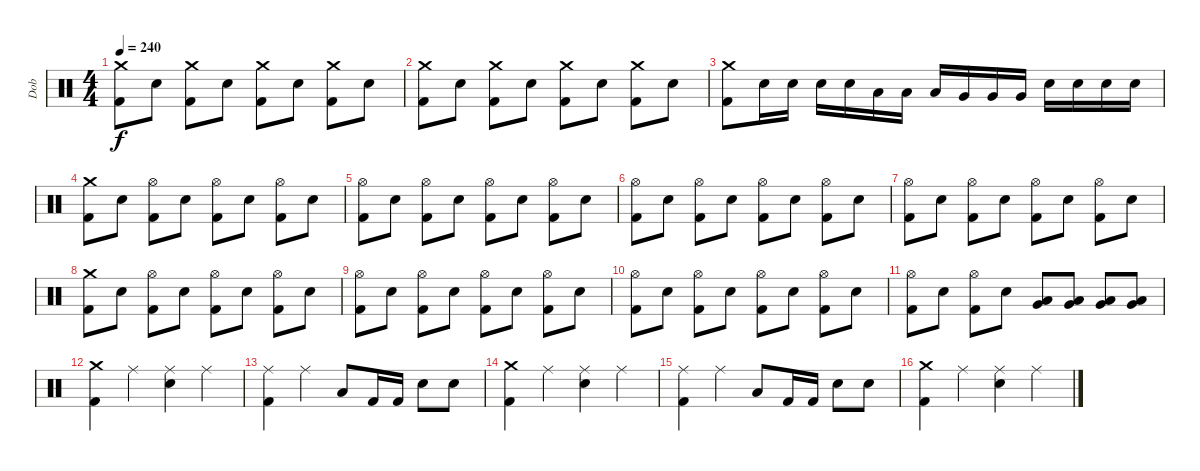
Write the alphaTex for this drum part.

\track ("Dob" "Dob") {instrument percussion}
\staff {score}
\articulation defaults
\ts (4 4)
\tempo 240
\clef neutral
\ks c
("Crash medium (hit)" "Kick (hit) 2").8{dy f} "Electric Snare (hit)".8 ("Crash medium (hit)" "Kick (hit) 2").8 "Electric Snare (hit)".8 ("Crash medium (hit)" "Kick (hit) 2").8 "Electric Snare (hit)".8 ("Crash medium (hit)" "Kick (hit) 2").8 "Electric Snare (hit)".8 |
("Crash medium (hit)" "Kick (hit) 2").8 "Electric Snare (hit)".8 ("Crash medium (hit)" "Kick (hit) 2").8 "Electric Snare (hit)".8 ("Crash medium (hit)" "Kick (hit) 2").8 "Electric Snare (hit)".8 ("Crash medium (hit)" "Kick (hit) 2").8 "Electric Snare (hit)".8 |
("Crash medium (hit)" "Kick (hit) 2").8 "Electric Snare (hit)".16 "Electric Snare (hit)".16 "Electric Snare (hit)".16 "Electric Snare (hit)".16 "Low Tom (hit)".16 "Low Tom (hit)".16 "Low Tom (hit)".16 "Very Low Tom (hit)".16 "Very Low Tom (hit)".16 "Very Low Tom (hit)".16 "Electric Snare (hit)".16 "Electric Snare (hit)".16 "Electric Snare (hit)".16 "Electric Snare (hit)".16 |
("Crash medium (hit)" "Kick (hit) 2").8 "Electric Snare (hit)".8 ("Hi-Hat (open)" "Kick (hit) 2").8 "Electric Snare (hit)".8 ("Hi-Hat (open)" "Kick (hit) 2").8 "Electric Snare (hit)".8 ("Hi-Hat (open)" "Kick (hit) 2").8 "Electric Snare (hit)".8 |
("Hi-Hat (open)" "Kick (hit) 2").8 "Electric Snare (hit)".8 ("Hi-Hat (open)" "Kick (hit) 2").8 "Electric Snare (hit)".8 ("Hi-Hat (open)" "Kick (hit) 2").8 "Electric Snare (hit)".8 ("Hi-Hat (open)" "Kick (hit) 2").8 "Electric Snare (hit)".8 |
("Hi-Hat (open)" "Kick (hit) 2").8 "Electric Snare (hit)".8 ("Hi-Hat (open)" "Kick (hit) 2").8 "Electric Snare (hit)".8 ("Hi-Hat (open)" "Kick (hit) 2").8 "Electric Snare (hit)".8 ("Hi-Hat (open)" "Kick (hit) 2").8 "Electric Snare (hit)".8 |
("Hi-Hat (open)" "Kick (hit) 2").8 "Electric Snare (hit)".8 ("Hi-Hat (open)" "Kick (hit) 2").8 "Electric Snare (hit)".8 ("Hi-Hat (open)" "Kick (hit) 2").8 "Electric Snare (hit)".8 ("Hi-Hat (open)" "Kick (hit) 2").8 "Electric Snare (hit)".8 |
("Crash medium (hit)" "Kick (hit) 2").8 "Electric Snare (hit)".8 ("Hi-Hat (open)" "Kick (hit) 2").8 "Electric Snare (hit)".8 ("Hi-Hat (open)" "Kick (hit) 2").8 "Electric Snare (hit)".8 ("Hi-Hat (open)" "Kick (hit) 2").8 "Electric Snare (hit)".8 |
("Hi-Hat (open)" "Kick (hit) 2").8 "Electric Snare (hit)".8 ("Hi-Hat (open)" "Kick (hit) 2").8 "Electric Snare (hit)".8 ("Hi-Hat (open)" "Kick (hit) 2").8 "Electric Snare (hit)".8 ("Hi-Hat (open)" "Kick (hit) 2").8 "Electric Snare (hit)".8 |
("Hi-Hat (open)" "Kick (hit) 2").8 "Electric Snare (hit)".8 ("Hi-Hat (open)" "Kick (hit) 2").8 "Electric Snare (hit)".8 ("Hi-Hat (open)" "Kick (hit) 2").8 "Electric Snare (hit)".8 ("Hi-Hat (open)" "Kick (hit) 2").8 "Electric Snare (hit)".8 |
("Hi-Hat (open)" "Kick (hit) 2").8 "Electric Snare (hit)".8 ("Hi-Hat (open)" "Kick (hit) 2").8 "Electric Snare (hit)".8 ("Low Tom (hit)" "Very Low Tom (hit)").8 ("Low Tom (hit)" "Very Low Tom (hit)").8 ("Low Tom (hit)" "Very Low Tom (hit)").8 ("Low Tom (hit)" "Very Low Tom (hit)").8 |
("Crash medium (hit)" "Kick (hit) 2").4 "Ride (middle)".4 ("Ride (middle)" "Electric Snare (hit)").4 "Ride (middle)".4 |
("Ride (middle)" "Kick (hit) 2").4 "Ride (middle)".4 "Low Tom (hit)".8 "Kick (hit) 2".16 "Kick (hit) 2".16 "Electric Snare (hit)".8 "Electric Snare (hit)".8 |
("Crash medium (hit)" "Kick (hit) 2").4 "Ride (middle)".4 ("Ride (middle)" "Electric Snare (hit)").4 "Ride (middle)".4 |
("Ride (middle)" "Kick (hit) 2").4 "Ride (middle)".4 "Low Tom (hit)".8 "Kick (hit) 2".16 "Kick (hit) 2".16 "Electric Snare (hit)".8 "Electric Snare (hit)".8 |
("Crash medium (hit)" "Kick (hit) 2").4 "Ride (middle)".4 ("Ride (middle)" "Electric Snare (hit)").4 "Ride (middle)".4
